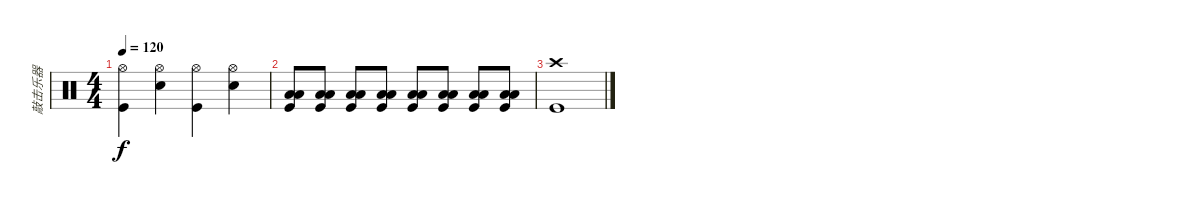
\track ("敲击乐器" "敲击乐器") {instrument percussion}
\staff {score}
\articulation defaults
\ts (4 4)
\tempo 120
\clef neutral
\ks c
("Hi-Hat (open)" "Kick (hit)").4{dy f} ("Hi-Hat (open)" "Snare (hit) 2").4 ("Hi-Hat (open)" "Kick (hit)").4 ("Hi-Hat (open)" "Snare (hit) 2").4 |
("Low Tom (hit)" "Low Floor Tom (hit)" "Kick (hit)").8 ("Low Tom (hit)" "Low Floor Tom (hit)" "Kick (hit)").8 ("Low Tom (hit)" "Low Floor Tom (hit)" "Kick (hit)").8 ("Low Tom (hit)" "Low Floor Tom (hit)" "Kick (hit)").8 ("Low Tom (hit)" "Low Floor Tom (hit)" "Kick (hit)").8 ("Low Tom (hit)" "Low Floor Tom (hit)" "Kick (hit)").8 ("Low Tom (hit)" "Low Floor Tom (hit)" "Kick (hit)").8 ("Low Tom (hit)" "Low Floor Tom (hit)" "Kick (hit)").8 |
("Crash high (hit)" "Kick (hit)").1
